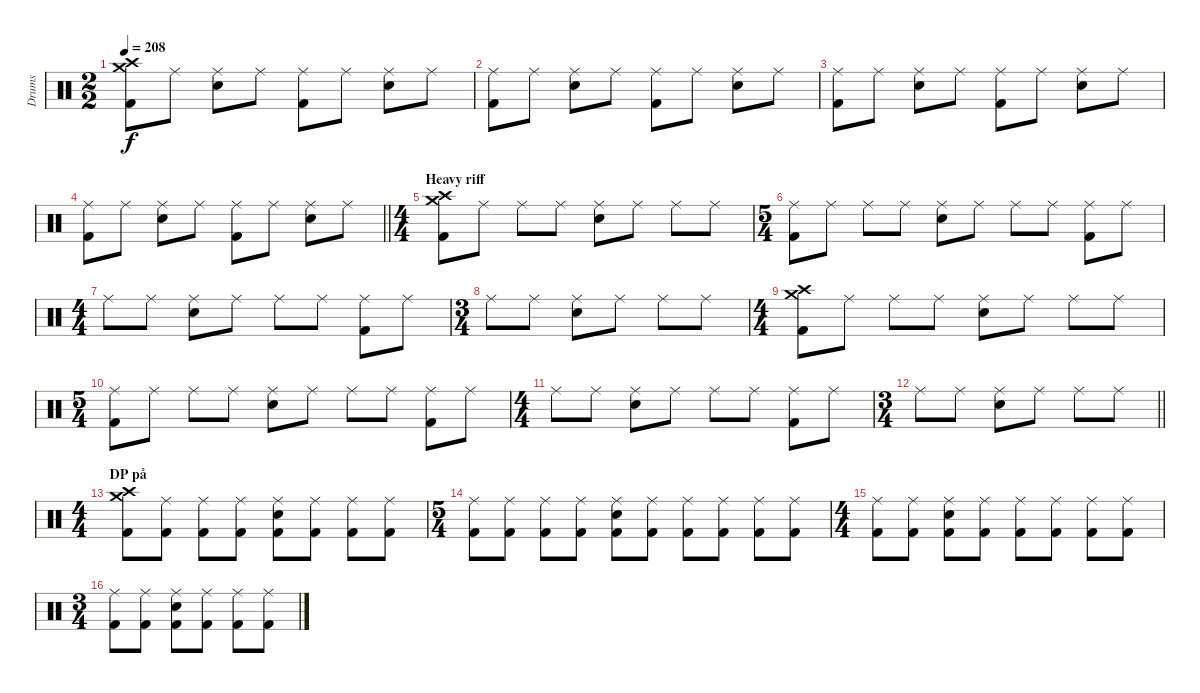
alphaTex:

\track ("Drums" "Drums") {instrument percussion}
\staff {score}
\articulation defaults
\ts (2 2)
\tempo 208
\clef neutral
\ks c
("Crash medium (hit)" "Crash high (hit)" "Kick (hit) 2").8{dy f} "Ride (middle)".8 ("Ride (middle)" "Snare (hit) 2").8 "Ride (middle)".8 ("Ride (middle)" "Kick (hit) 2").8 "Ride (middle)".8 ("Ride (middle)" "Snare (hit) 2").8 "Ride (middle)".8 |
("Ride (middle)" "Kick (hit) 2").8 "Ride (middle)".8 ("Ride (middle)" "Snare (hit) 2").8 "Ride (middle)".8 ("Ride (middle)" "Kick (hit) 2").8 "Ride (middle)".8 ("Ride (middle)" "Snare (hit) 2").8 "Ride (middle)".8 |
("Ride (middle)" "Kick (hit) 2").8 "Ride (middle)".8 ("Ride (middle)" "Snare (hit) 2").8 "Ride (middle)".8 ("Ride (middle)" "Kick (hit) 2").8 "Ride (middle)".8 ("Ride (middle)" "Snare (hit) 2").8 "Ride (middle)".8 |
\barLineRight lightlight
("Ride (middle)" "Kick (hit) 2").8 "Ride (middle)".8 ("Ride (middle)" "Snare (hit) 2").8 "Ride (middle)".8 ("Ride (middle)" "Kick (hit) 2").8 "Ride (middle)".8 ("Ride (middle)" "Snare (hit) 2").8 "Ride (middle)".8 |
\ts (4 4)
\section ("" "Heavy riff")
("Crash medium (hit)" "Crash high (hit)" "Kick (hit) 2").8 "Ride (middle)".8 "Ride (middle)".8 "Ride (middle)".8 ("Ride (middle)" "Snare (hit) 2").8 "Ride (middle)".8 "Ride (middle)".8 "Ride (middle)".8 |
\ts (5 4)
("Ride (middle)" "Kick (hit) 2").8 "Ride (middle)".8 "Ride (middle)".8 "Ride (middle)".8 ("Ride (middle)" "Snare (hit) 2").8 "Ride (middle)".8 "Ride (middle)".8 "Ride (middle)".8 ("Ride (middle)" "Kick (hit) 2").8 "Ride (middle)".8 |
\ts (4 4)
"Ride (middle)".8 "Ride (middle)".8 ("Ride (middle)" "Snare (hit) 2").8 "Ride (middle)".8 "Ride (middle)".8 "Ride (middle)".8 ("Ride (middle)" "Kick (hit) 2").8 "Ride (middle)".8 |
\ts (3 4)
"Ride (middle)".8 "Ride (middle)".8 ("Ride (middle)" "Snare (hit) 2").8 "Ride (middle)".8 "Ride (middle)".8 "Ride (middle)".8 |
\ts (4 4)
("Crash medium (hit)" "Crash high (hit)" "Kick (hit) 2").8 "Ride (middle)".8 "Ride (middle)".8 "Ride (middle)".8 ("Ride (middle)" "Snare (hit) 2").8 "Ride (middle)".8 "Ride (middle)".8 "Ride (middle)".8 |
\ts (5 4)
("Ride (middle)" "Kick (hit) 2").8 "Ride (middle)".8 "Ride (middle)".8 "Ride (middle)".8 ("Ride (middle)" "Snare (hit) 2").8 "Ride (middle)".8 "Ride (middle)".8 "Ride (middle)".8 ("Ride (middle)" "Kick (hit) 2").8 "Ride (middle)".8 |
\ts (4 4)
"Ride (middle)".8 "Ride (middle)".8 ("Ride (middle)" "Snare (hit) 2").8 "Ride (middle)".8 "Ride (middle)".8 "Ride (middle)".8 ("Ride (middle)" "Kick (hit) 2").8 "Ride (middle)".8 |
\ts (3 4)
\barLineRight lightlight "Ride (middle)".8 "Ride (middle)".8
("Ride (middle)" "Snare (hit) 2").8 "Ride (middle)".8 "Ride (middle)".8 "Ride (middle)".8 |
\ts (4 4)
\section ("" "DP på")
("Crash medium (hit)" "Crash high (hit)" "Kick (hit) 2").8 ("Ride (middle)" "Kick (hit) 2").8 ("Ride (middle)" "Kick (hit) 2").8 ("Ride (middle)" "Kick (hit) 2").8 ("Ride (middle)" "Snare (hit) 2" "Kick (hit) 2").8 ("Ride (middle)" "Kick (hit) 2").8 ("Ride (middle)" "Kick (hit) 2").8 ("Ride (middle)" "Kick (hit) 2").8 |
\ts (5 4)
("Ride (middle)" "Kick (hit) 2").8 ("Ride (middle)" "Kick (hit) 2").8 ("Ride (middle)" "Kick (hit) 2").8 ("Ride (middle)" "Kick (hit) 2").8 ("Ride (middle)" "Snare (hit) 2" "Kick (hit) 2").8 ("Ride (middle)" "Kick (hit) 2").8 ("Ride (middle)" "Kick (hit) 2").8 ("Ride (middle)" "Kick (hit) 2").8 ("Ride (middle)" "Kick (hit) 2").8 ("Ride (middle)" "Kick (hit) 2").8 |
\ts (4 4)
("Ride (middle)" "Kick (hit) 2").8 ("Ride (middle)" "Kick (hit) 2").8 ("Ride (middle)" "Snare (hit) 2" "Kick (hit) 2").8 ("Ride (middle)" "Kick (hit) 2").8 ("Ride (middle)" "Kick (hit) 2").8 ("Ride (middle)" "Kick (hit) 2").8 ("Ride (middle)" "Kick (hit) 2").8 ("Ride (middle)" "Kick (hit) 2").8 |
\ts (3 4)
("Ride (middle)" "Kick (hit) 2").8 ("Ride (middle)" "Kick (hit) 2").8 ("Ride (middle)" "Snare (hit) 2" "Kick (hit) 2").8 ("Ride (middle)" "Kick (hit) 2").8 ("Ride (middle)" "Kick (hit) 2").8 ("Ride (middle)" "Kick (hit) 2").8
